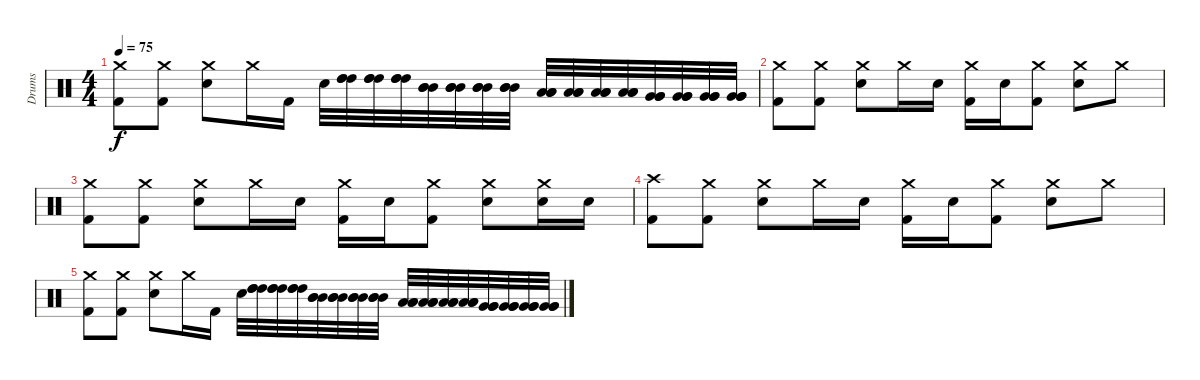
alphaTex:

\track ("Drums" "Drums") {instrument percussion}
\staff {score}
\articulation defaults
\ts (4 4)
\tempo 75
\clef neutral
\ks c
("Crash medium (hit)" "Kick (hit) 2").8{dy f} ("Crash medium (hit)" "Kick (hit) 2").8 ("Crash medium (hit)" "Electric Snare (hit)").8 "Crash medium (hit)".16 "Kick (hit) 2".16 "Electric Snare (hit)".32 ("High Tom (hit)" "High Tom (hit)" "High Tom (hit)").32 ("High Tom (hit)" "High Tom (hit)" "High Tom (hit)").32 ("High Tom (hit)" "High Tom (hit)" "High Tom (hit)").32 ("Mid Tom (hit)" "Mid Tom (hit)" "Mid Tom (hit)").32 ("Mid Tom (hit)" "Mid Tom (hit)" "Mid Tom (hit)").32 ("Mid Tom (hit)" "Mid Tom (hit)" "Mid Tom (hit)").32 ("Mid Tom (hit)" "Mid Tom (hit)" "Mid Tom (hit)").32 ("Low Tom (hit)" "Low Tom (hit)" "Low Tom (hit)").32 ("Low Tom (hit)" "Low Tom (hit)" "Low Tom (hit)").32 ("Low Tom (hit)" "Low Tom (hit)" "Low Tom (hit)").32 ("Low Tom (hit)" "Low Tom (hit)" "Low Tom (hit)").32 ("Very Low Tom (hit)" "Very Low Tom (hit)" "Very Low Tom (hit)").32 ("Very Low Tom (hit)" "Very Low Tom (hit)" "Very Low Tom (hit)").32 ("Very Low Tom (hit)" "Very Low Tom (hit)" "Very Low Tom (hit)").32 ("Very Low Tom (hit)" "Very Low Tom (hit)" "Very Low Tom (hit)").32 |
("Crash medium (hit)" "Kick (hit) 2").8{volume 3} ("Crash medium (hit)" "Kick (hit) 2").8 ("Crash medium (hit)" "Electric Snare (hit)").8 "Crash medium (hit)".16 "Electric Snare (hit)".16 ("Crash medium (hit)" "Kick (hit) 2").16 "Electric Snare (hit)".16 ("Crash medium (hit)" "Kick (hit) 2").8 ("Crash medium (hit)" "Electric Snare (hit)").8 "Crash medium (hit)".8 |
("Crash medium (hit)" "Kick (hit) 2").8 ("Crash medium (hit)" "Kick (hit) 2").8 ("Crash medium (hit)" "Electric Snare (hit)").8 "Crash medium (hit)".16 "Electric Snare (hit)".16 ("Crash medium (hit)" "Kick (hit) 2").16 "Electric Snare (hit)".16 ("Crash medium (hit)" "Kick (hit) 2").8 ("Crash medium (hit)" "Electric Snare (hit)").8 ("Crash medium (hit)" "Electric Snare (hit)").16 "Electric Snare (hit)".16 |
("Crash high (hit)" "Kick (hit) 2").8{volume 0} ("Crash medium (hit)" "Kick (hit) 2").8 ("Crash medium (hit)" "Electric Snare (hit)").8 "Crash medium (hit)".16 "Electric Snare (hit)".16 ("Crash medium (hit)" "Kick (hit) 2").16 "Electric Snare (hit)".16 ("Crash medium (hit)" "Kick (hit) 2").8 ("Crash medium (hit)" "Electric Snare (hit)").8 "Crash medium (hit)".8 |
("Crash medium (hit)" "Kick (hit) 2").8 ("Crash medium (hit)" "Kick (hit) 2").8 ("Crash medium (hit)" "Electric Snare (hit)").8 "Crash medium (hit)".16 "Kick (hit) 2".16 "Electric Snare (hit)".32 ("High Tom (hit)" "High Tom (hit)" "High Tom (hit)").32 ("High Tom (hit)" "High Tom (hit)" "High Tom (hit)").32 ("High Tom (hit)" "High Tom (hit)" "High Tom (hit)").32 ("Mid Tom (hit)" "Mid Tom (hit)" "Mid Tom (hit)").32 ("Mid Tom (hit)" "Mid Tom (hit)" "Mid Tom (hit)").32 ("Mid Tom (hit)" "Mid Tom (hit)" "Mid Tom (hit)").32 ("Mid Tom (hit)" "Mid Tom (hit)" "Mid Tom (hit)").32 ("Low Tom (hit)" "Low Tom (hit)" "Low Tom (hit)").32 ("Low Tom (hit)" "Low Tom (hit)" "Low Tom (hit)").32 ("Low Tom (hit)" "Low Tom (hit)" "Low Tom (hit)").32 ("Low Tom (hit)" "Low Tom (hit)" "Low Tom (hit)").32 ("Very Low Tom (hit)" "Very Low Tom (hit)" "Very Low Tom (hit)").32 ("Very Low Tom (hit)" "Very Low Tom (hit)" "Very Low Tom (hit)").32 ("Very Low Tom (hit)" "Very Low Tom (hit)" "Very Low Tom (hit)").32 ("Very Low Tom (hit)" "Very Low Tom (hit)" "Very Low Tom (hit)").32
